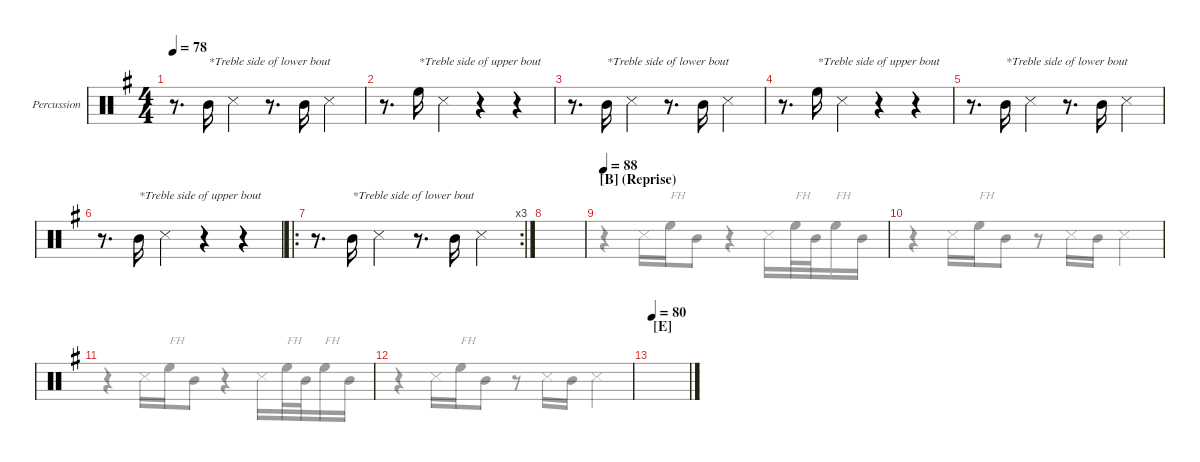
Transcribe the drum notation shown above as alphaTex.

\defaultSystemsLayout 4
\hideDynamics
\bracketExtendMode groupsimilarinstruments
\firstSystemTrackNameMode fullname
\otherSystemsTrackNameMode fullname
\firstSystemTrackNameOrientation horizontal
\otherSystemsTrackNameOrientation horizontal
\track ("Percussion" "Perc.") {instrument percussion}
\staff {score}
\articulation defaults
\voice
\ts (4 4)
\tempo 78
\clef neutral
\ks g
r.8{d dy mf} "Mid Tom (hit)".16{txt "*Treble side of lower bout"} "Snare (side stick) 3".4 r.8{d} "Mid Tom (hit)".16 "Snare (side stick) 3".4 |
r.8{d} "High Floor Tom (hit)".16{txt "*Treble side of upper bout"} "Snare (side stick) 3".4 r.4 r.4 |
r.8{d} "Mid Tom (hit)".16{txt "*Treble side of lower bout"} "Snare (side stick) 3".4 r.8{d} "Mid Tom (hit)".16 "Snare (side stick) 3".4 |
r.8{d} "High Floor Tom (hit)".16{txt "*Treble side of upper bout"} "Snare (side stick) 3".4 r.4 r.4 |
r.8{d} "Mid Tom (hit)".16{txt "*Treble side of lower bout"} "Snare (side stick) 3".4 r.8{d} "Mid Tom (hit)".16 "Snare (side stick) 3".4 |
r.8{d} "Mid Tom (hit)".16{txt "*Treble side of upper bout"} "Snare (side stick) 3".4 r.4 r.4 |
\ro
\rc 3
r.8{d} "Mid Tom (hit)".16{txt "*Treble side of lower bout"} "Snare (side stick) 3".4 r.8{d} "Mid Tom (hit)".16 "Snare (side stick) 3".4 |
|
\section ("B" "(Reprise)")
\tempo 88
|
|
|
|
\section ("E" "")
\tempo 80
|
|
|
\voice
\clef neutral
\ottava regular
\simile none
\ks g
|
|
|
|
|
|
|
|
r.4 "Snare (side stick) 3".16{dy mf} "High Floor Tom (hit)".16{txt "FH"} "Mid Tom (hit)".8 r.4 "Snare (side stick) 3".16 "High Floor Tom (hit)".32{txt "FH"} "Mid Tom (hit)".32 "High Floor Tom (hit)".16{txt "FH"} "Mid Tom (hit)".16 |
r.4 "Snare (side stick) 3".16 "High Floor Tom (hit)".16{txt "FH"} "Mid Tom (hit)".8 r.8 "Snare (side stick) 3".16 "Mid Tom (hit)".16 "Snare (side stick) 3".4 |
r.4 "Snare (side stick) 3".16 "High Floor Tom (hit)".16{txt "FH"} "Mid Tom (hit)".8 r.4 "Snare (side stick) 3".16 "High Floor Tom (hit)".32{txt "FH"} "Mid Tom (hit)".32 "High Floor Tom (hit)".16{txt "FH"} "Mid Tom (hit)".16 |
r.4 "Snare (side stick) 3".16 "High Floor Tom (hit)".16{txt "FH"} "Mid Tom (hit)".8 r.8 "Snare (side stick) 3".16 "Mid Tom (hit)".16 "Snare (side stick) 3".4 |
|
|
|
